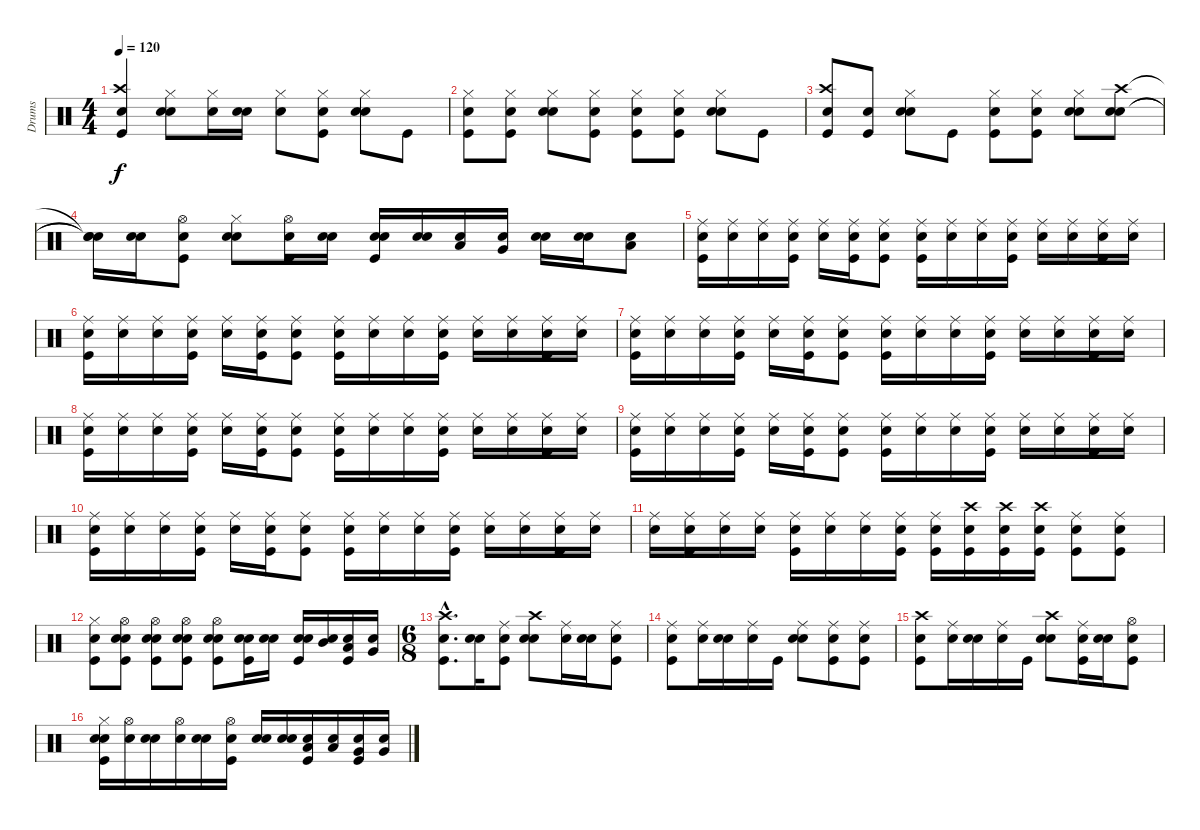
\track ("Drums" "Drums") {instrument percussion}
\staff {score}
\articulation defaults
\ts (4 4)
\tempo 120
\clef neutral
\ks c
("Snare (hit)" "Crash high (hit)" "Kick (hit)").4{dy f} ("Snare (hit)" "Electric Snare (hit)" "Hi-Hat (closed)").8 ("Snare (hit)" "Hi-Hat (closed)").16 ("Snare (hit)" "Electric Snare (hit)").16 ("Snare (hit)" "Hi-Hat (closed)").8 ("Snare (hit)" "Hi-Hat (closed)" "Kick (hit)").8 ("Snare (hit)" "Electric Snare (hit)" "Hi-Hat (closed)").8 "Kick (hit)".8 |
("Snare (hit)" "Hi-Hat (closed)" "Kick (hit)").8 ("Snare (hit)" "Hi-Hat (closed)" "Kick (hit)").8 ("Snare (hit)" "Electric Snare (hit)" "Hi-Hat (closed)").8 ("Snare (hit)" "Hi-Hat (closed)" "Kick (hit)").8 ("Snare (hit)" "Hi-Hat (closed)" "Kick (hit)").8 ("Snare (hit)" "Hi-Hat (closed)" "Kick (hit)").8 ("Snare (hit)" "Electric Snare (hit)" "Hi-Hat (closed)").8 "Kick (hit)".8 |
("Snare (hit)" "Crash high (hit)" "Kick (hit)").8 ("Snare (hit)" "Kick (hit)").8 ("Snare (hit)" "Electric Snare (hit)" "Hi-Hat (closed)").8 "Kick (hit)".8 ("Snare (hit)" "Hi-Hat (closed)" "Kick (hit)").8 ("Snare (hit)" "Hi-Hat (closed)" "Kick (hit)").8 ("Snare (hit)" "Electric Snare (hit)" "Hi-Hat (closed)").8 ("Snare (hit)" "Electric Snare (hit)" "Crash high (hit)").8 |
("Snare (hit)"{t} "Snare (hit)"{t} "Snare (hit)"{t}).16 ("Snare (hit)" "Electric Snare (hit)").16 ("Snare (hit)" "Hi-Hat (open)" "Kick (hit)").8 ("Snare (hit)" "Electric Snare (hit)" "Hi-Hat (closed)").8 ("Snare (hit)" "Hi-Hat (open)" "Kick (hit)").16 ("Snare (hit)" "Electric Snare (hit)").16 ("Snare (hit)" "Electric Snare (hit)" "Kick (hit)").16 ("Snare (hit)" "Electric Snare (hit)").16 ("Snare (hit)" "Low Tom (hit)").16 ("Snare (hit)" "Very Low Tom (hit)").16 ("Snare (hit)" "Electric Snare (hit)").16 ("Snare (hit)" "Electric Snare (hit)").16 ("Snare (hit)" "Low Tom (hit)").8 |
("Snare (hit)" "Ride (middle)" "Kick (hit)").16 ("Snare (hit)" "Ride (middle)").16 ("Snare (hit)" "Ride (middle)").16 ("Snare (hit)" "Ride (middle)" "Kick (hit)").16 ("Snare (hit)" "Ride (middle)").16 ("Snare (hit)" "Kick (hit)" "Ride (middle)").16 ("Snare (hit)" "Ride (middle)" "Kick (hit)").8 ("Snare (hit)" "Ride (middle)" "Kick (hit)").16 ("Snare (hit)" "Ride (middle)").16 ("Snare (hit)" "Ride (middle)").16 ("Snare (hit)" "Ride (middle)" "Kick (hit)").16 ("Snare (hit)" "Ride (middle)").16 ("Snare (hit)" "Ride (middle)").16 ("Snare (hit)" "Ride (middle)" "Kick (hit)").16 ("Snare (hit)" "Ride (middle)").16 |
("Snare (hit)" "Ride (middle)" "Kick (hit)").16 ("Snare (hit)" "Ride (middle)").16 ("Snare (hit)" "Ride (middle)").16 ("Snare (hit)" "Ride (middle)" "Kick (hit)").16 ("Snare (hit)" "Ride (middle)").16 ("Snare (hit)" "Kick (hit)" "Ride (middle)").16 ("Snare (hit)" "Ride (middle)" "Kick (hit)").8 ("Snare (hit)" "Ride (middle)" "Kick (hit)").16 ("Snare (hit)" "Ride (middle)").16 ("Snare (hit)" "Ride (middle)").16 ("Snare (hit)" "Ride (middle)" "Kick (hit)").16 ("Snare (hit)" "Ride (middle)").16 ("Snare (hit)" "Ride (middle)").16 ("Snare (hit)" "Ride (middle)" "Kick (hit)").16 ("Snare (hit)" "Ride (middle)").16 |
("Snare (hit)" "Ride (middle)" "Kick (hit)").16 ("Snare (hit)" "Ride (middle)").16 ("Snare (hit)" "Ride (middle)").16 ("Snare (hit)" "Ride (middle)" "Kick (hit)").16 ("Snare (hit)" "Ride (middle)").16 ("Snare (hit)" "Kick (hit)" "Ride (middle)").16 ("Snare (hit)" "Ride (middle)" "Kick (hit)").8 ("Snare (hit)" "Ride (middle)" "Kick (hit)").16 ("Snare (hit)" "Ride (middle)").16 ("Snare (hit)" "Ride (middle)").16 ("Snare (hit)" "Ride (middle)" "Kick (hit)").16 ("Snare (hit)" "Ride (middle)").16 ("Snare (hit)" "Ride (middle)").16 ("Snare (hit)" "Ride (middle)" "Kick (hit)").16 ("Snare (hit)" "Ride (middle)").16 |
("Snare (hit)" "Ride (middle)" "Kick (hit)").16 ("Snare (hit)" "Ride (middle)").16 ("Snare (hit)" "Ride (middle)").16 ("Snare (hit)" "Ride (middle)" "Kick (hit)").16 ("Snare (hit)" "Ride (middle)").16 ("Snare (hit)" "Kick (hit)" "Ride (middle)").16 ("Snare (hit)" "Ride (middle)" "Kick (hit)").8 ("Snare (hit)" "Ride (middle)" "Kick (hit)").16 ("Snare (hit)" "Ride (middle)").16 ("Snare (hit)" "Ride (middle)").16 ("Snare (hit)" "Ride (middle)" "Kick (hit)").16 ("Snare (hit)" "Ride (middle)").16 ("Snare (hit)" "Ride (middle)").16 ("Snare (hit)" "Ride (middle)" "Kick (hit)").16 ("Snare (hit)" "Ride (middle)").16 |
("Snare (hit)" "Ride (middle)" "Kick (hit)").16 ("Snare (hit)" "Ride (middle)").16 ("Snare (hit)" "Ride (middle)").16 ("Snare (hit)" "Ride (middle)" "Kick (hit)").16 ("Snare (hit)" "Ride (middle)").16 ("Snare (hit)" "Kick (hit)" "Ride (middle)").16 ("Snare (hit)" "Ride (middle)" "Kick (hit)").8 ("Snare (hit)" "Ride (middle)" "Kick (hit)").16 ("Snare (hit)" "Ride (middle)").16 ("Snare (hit)" "Ride (middle)").16 ("Snare (hit)" "Ride (middle)" "Kick (hit)").16 ("Snare (hit)" "Ride (middle)").16 ("Snare (hit)" "Ride (middle)").16 ("Snare (hit)" "Ride (middle)" "Kick (hit)").16 ("Snare (hit)" "Ride (middle)").16 |
("Snare (hit)" "Ride (middle)" "Kick (hit)").16 ("Snare (hit)" "Ride (middle)").16 ("Snare (hit)" "Ride (middle)").16 ("Snare (hit)" "Ride (middle)" "Kick (hit)").16 ("Snare (hit)" "Ride (middle)").16 ("Snare (hit)" "Kick (hit)" "Ride (middle)").16 ("Snare (hit)" "Ride (middle)" "Kick (hit)").8 ("Snare (hit)" "Ride (middle)" "Kick (hit)").16 ("Snare (hit)" "Ride (middle)").16 ("Snare (hit)" "Ride (middle)").16 ("Snare (hit)" "Ride (middle)" "Kick (hit)").16 ("Snare (hit)" "Ride (middle)").16 ("Snare (hit)" "Ride (middle)").16 ("Snare (hit)" "Ride (middle)" "Kick (hit)").16 ("Snare (hit)" "Ride (middle)").16 |
("Snare (hit)" "Ride (middle)").16 ("Snare (hit)" "Ride (middle)" "Kick (hit)").16 ("Snare (hit)" "Ride (middle)").16 ("Snare (hit)" "Ride (middle)").16 ("Snare (hit)" "Ride (middle)" "Kick (hit)").16 ("Snare (hit)" "Ride (middle)").16 ("Snare (hit)" "Ride (middle)").16 ("Snare (hit)" "Ride (middle)" "Kick (hit)").16 ("Snare (hit)" "Ride (middle)" "Kick (hit)").16 ("Snare (hit)" "Crash high (hit)" "Kick (hit)").16 ("Snare (hit)" "Crash high (hit)" "Kick (hit)").16 ("Snare (hit)" "Kick (hit)" "Crash high (hit)").16 ("Snare (hit)" "Ride (middle)" "Kick (hit)").8 ("Snare (hit)" "Ride (middle)" "Kick (hit)").8 |
("Snare (hit)" "Hi-Hat (closed)" "Kick (hit)").8 ("Snare (hit)" "Electric Snare (hit)" "Hi-Hat (open)" "Kick (hit)").8 ("Snare (hit)" "Electric Snare (hit)" "Hi-Hat (open)" "Kick (hit)").8 ("Snare (hit)" "Electric Snare (hit)" "Hi-Hat (open)" "Kick (hit)").8 ("Snare (hit)" "Electric Snare (hit)" "Hi-Hat (open)" "Kick (hit)").8 ("Snare (hit)" "Electric Snare (hit)" "Kick (hit)").16 ("Snare (hit)" "Electric Snare (hit)").16 ("Snare (hit)" "Electric Snare (hit)" "Kick (hit)").16 ("Snare (hit)" "Mid Tom (hit)").16 ("Snare (hit)" "Low Tom (hit)" "Kick (hit)").16 ("Snare (hit)" "Very Low Tom (hit)").16 |
\ts (6 8)
("Snare (hit)"{hac} "Kick (hit)"{hac} "Crash high (hit)"{hac}).8{d} ("Snare (hit)" "Electric Snare (hit)").16 ("Snare (hit)" "Kick (hit)" "Ride (middle)").8 ("Snare (hit)" "Electric Snare (hit)" "Crash high (hit)").8 ("Snare (hit)" "Ride (middle)").16 ("Snare (hit)" "Electric Snare (hit)").16 ("Snare (hit)" "Kick (hit)" "Ride (middle)").8 |
("Snare (hit)" "Kick (hit)" "Ride (middle)").8 ("Snare (hit)" "Ride (middle)").16 ("Snare (hit)" "Electric Snare (hit)").16 ("Snare (hit)" "Ride (middle)").16 "Kick (hit)".16 ("Snare (hit)" "Electric Snare (hit)" "Ride (middle)").8 ("Snare (hit)" "Kick (hit)" "Ride (middle)").8 ("Snare (hit)" "Kick (hit)" "Ride (middle)").8 |
("Snare (hit)" "Kick (hit)" "Crash high (hit)").8 ("Snare (hit)" "Ride (middle)").16 ("Snare (hit)" "Electric Snare (hit)").16 ("Snare (hit)" "Ride (middle)").16 "Kick (hit)".16 ("Snare (hit)" "Electric Snare (hit)" "Crash high (hit)").8 ("Snare (hit)" "Kick (hit)" "Ride (middle)").16 ("Snare (hit)" "Electric Snare (hit)").16 ("Snare (hit)" "Kick (hit)" "Hi-Hat (open)").8 |
("Snare (hit)" "Kick (hit)" "Electric Snare (hit)" "Hi-Hat (closed)").16 ("Snare (hit)" "Hi-Hat (open)").16 ("Snare (hit)" "Electric Snare (hit)").16 ("Snare (hit)" "Hi-Hat (open)").16 ("Snare (hit)" "Electric Snare (hit)").16 ("Snare (hit)" "Kick (hit)" "Hi-Hat (open)").16 ("Snare (hit)" "Electric Snare (hit)").16 ("Snare (hit)" "Electric Snare (hit)").16 ("Snare (hit)" "Kick (hit)" "Low Tom (hit)").16 ("Snare (hit)" "Low Tom (hit)").16 ("Snare (hit)" "Kick (hit)" "Very Low Tom (hit)").16 ("Snare (hit)" "Very Low Tom (hit)").16
